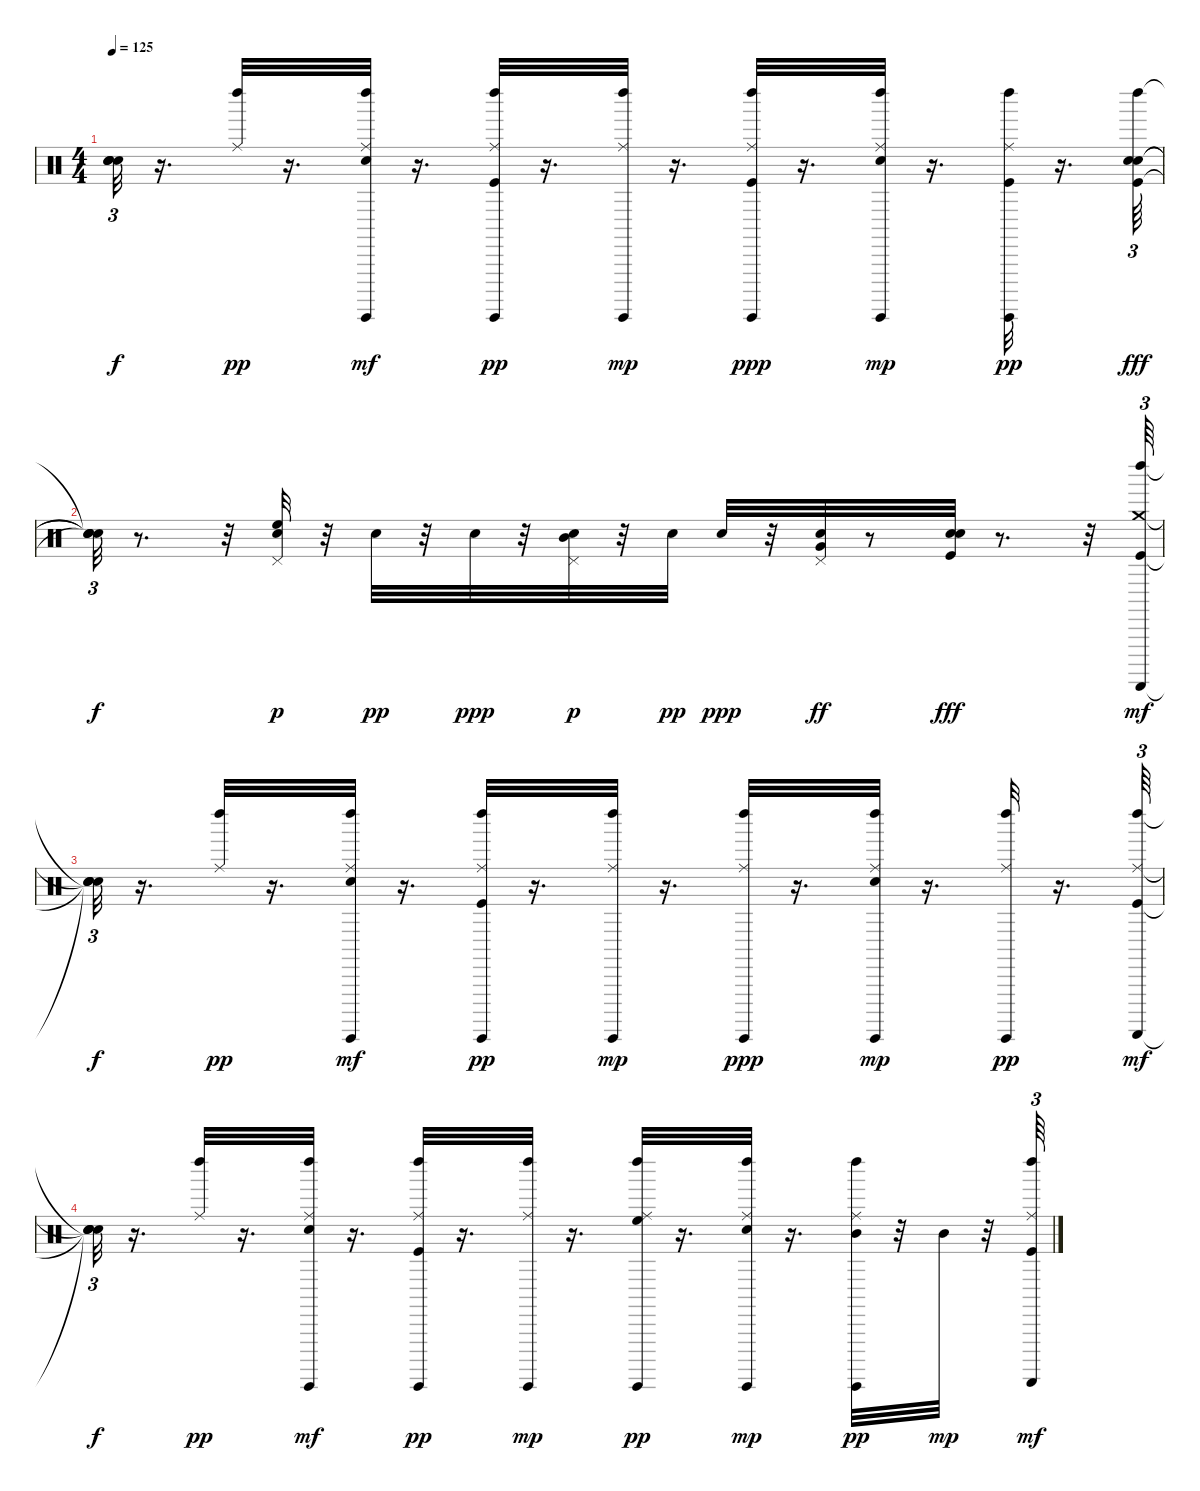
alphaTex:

\track "" {instrument percussion}
\staff {score}
\articulation defaults
\ts (4 4)
\tempo 125
\clef neutral
\ks c
("Snare (hit)"{t} "Snare (hit)"{t} "Snare (hit)"{t} "Snare (hit)"{t}).32{tu (3 2) dy f} r.16{d} ("Left Maraca (hit)" "Ride (middle)").32{dy pp} r.16{d} ("Electric Snare (hit)" "Left Maraca (hit)" "Ride (middle)" "Guiro (hit)").32{dy mf} r.16{d} ("Kick (hit)" "Ride (middle)" "Left Maraca (hit)" "Guiro (hit)").32{dy pp} r.16{d} ("Ride (middle)" "Left Maraca (hit)" "Guiro (hit)").32{dy mp} r.16{d} ("Left Maraca (hit)" "Ride (middle)" "Kick (hit)" "Guiro (hit)").32{dy ppp} r.16{d} ("Left Maraca (hit)" "Ride (middle)" "Electric Snare (hit)" "Guiro (hit)").32{dy mp} r.16{d} ("Left Maraca (hit)" "Ride (middle)" "Kick (hit)" "Guiro (hit)").32{dy pp} r.16{d} ("Electric Snare (hit)" "Kick (hit)" "Left Maraca (hit)" "Electric Snare (hit)").64{tu (3 2) dy fff} |
("Snare (hit)"{t} "Snare (hit)"{t} "Snare (hit)"{t} "Snare (hit)"{t}).32{tu (3 2) dy f} r.8{d} r.32 ("High Floor Tom (hit)" "Pedal Hi-Hat (hit)" "Electric Snare (hit)").32{dy p} r.32 "Electric Snare (hit)".32{dy pp} r.32 "Electric Snare (hit)".32{dy ppp} r.32 ("Mid Tom (hit)" "Pedal Hi-Hat (hit)" "Electric Snare (hit)").32{dy p} r.32 "Electric Snare (hit)".32{dy pp} "Electric Snare (hit)".32{dy ppp} r.32 ("Electric Snare (hit)" "Pedal Hi-Hat (hit)" "Very Low Tom (hit)").32{dy ff} r.8 ("Electric Snare (hit)" "Electric Snare (hit)" "Kick (hit)").32{dy fff} r.8{d} r.32 ("Crash medium (hit)" "Left Maraca (hit)" "Kick (hit)" "Guiro (scrap-return)").64{tu (3 2) dy mf} |
("Snare (hit)"{t} "Snare (hit)"{t} "Snare (hit)"{t} "Snare (hit)"{t}).32{tu (3 2) dy f} r.16{d} ("Ride (middle)" "Left Maraca (hit)").32{dy pp} r.16{d} ("Left Maraca (hit)" "Ride (middle)" "Electric Snare (hit)" "Guiro (hit)").32{dy mf} r.16{d} ("Left Maraca (hit)" "Ride (middle)" "Kick (hit)" "Guiro (hit)").32{dy pp} r.16{d} ("Left Maraca (hit)" "Ride (middle)" "Guiro (hit)").32{dy mp} r.16{d} ("Ride (middle)" "Left Maraca (hit)" "Guiro (hit)").32{dy ppp} r.16{d} ("Electric Snare (hit)" "Left Maraca (hit)" "Ride (middle)" "Guiro (hit)").32{dy mp} r.16{d} ("Left Maraca (hit)" "Ride (middle)" "Guiro (hit)").32{dy pp} r.16{d} ("Left Maraca (hit)" "Ride (middle)" "Kick (hit)" "Guiro (scrap-return)").64{tu (3 2) dy mf} |
("Snare (hit)"{t} "Snare (hit)"{t} "Snare (hit)"{t} "Snare (hit)"{t}).32{tu (3 2) dy f} r.16{d} ("Ride (middle)" "Left Maraca (hit)").32{dy pp} r.16{d} ("Ride (middle)" "Left Maraca (hit)" "Electric Snare (hit)" "Guiro (hit)").32{dy mf} r.16{d} ("Kick (hit)" "Left Maraca (hit)" "Ride (middle)" "Guiro (hit)").32{dy pp} r.16{d} ("Left Maraca (hit)" "Ride (middle)" "Guiro (hit)").32{dy mp} r.16{d} ("High Floor Tom (hit)" "Left Maraca (hit)" "Ride (middle)" "Guiro (hit)").32{dy pp} r.16{d} ("Ride (middle)" "Left Maraca (hit)" "Electric Snare (hit)" "Guiro (hit)").32{dy mp} r.16{d} ("Mid Tom (hit)" "Ride (middle)" "Left Maraca (hit)" "Guiro (hit)").32{dy pp} r.32 "Mid Tom (hit)".32{dy mp} r.32 ("Ride (middle)" "Left Maraca (hit)" "Kick (hit)" "Guiro (scrap-return)").64{tu (3 2) dy mf}
